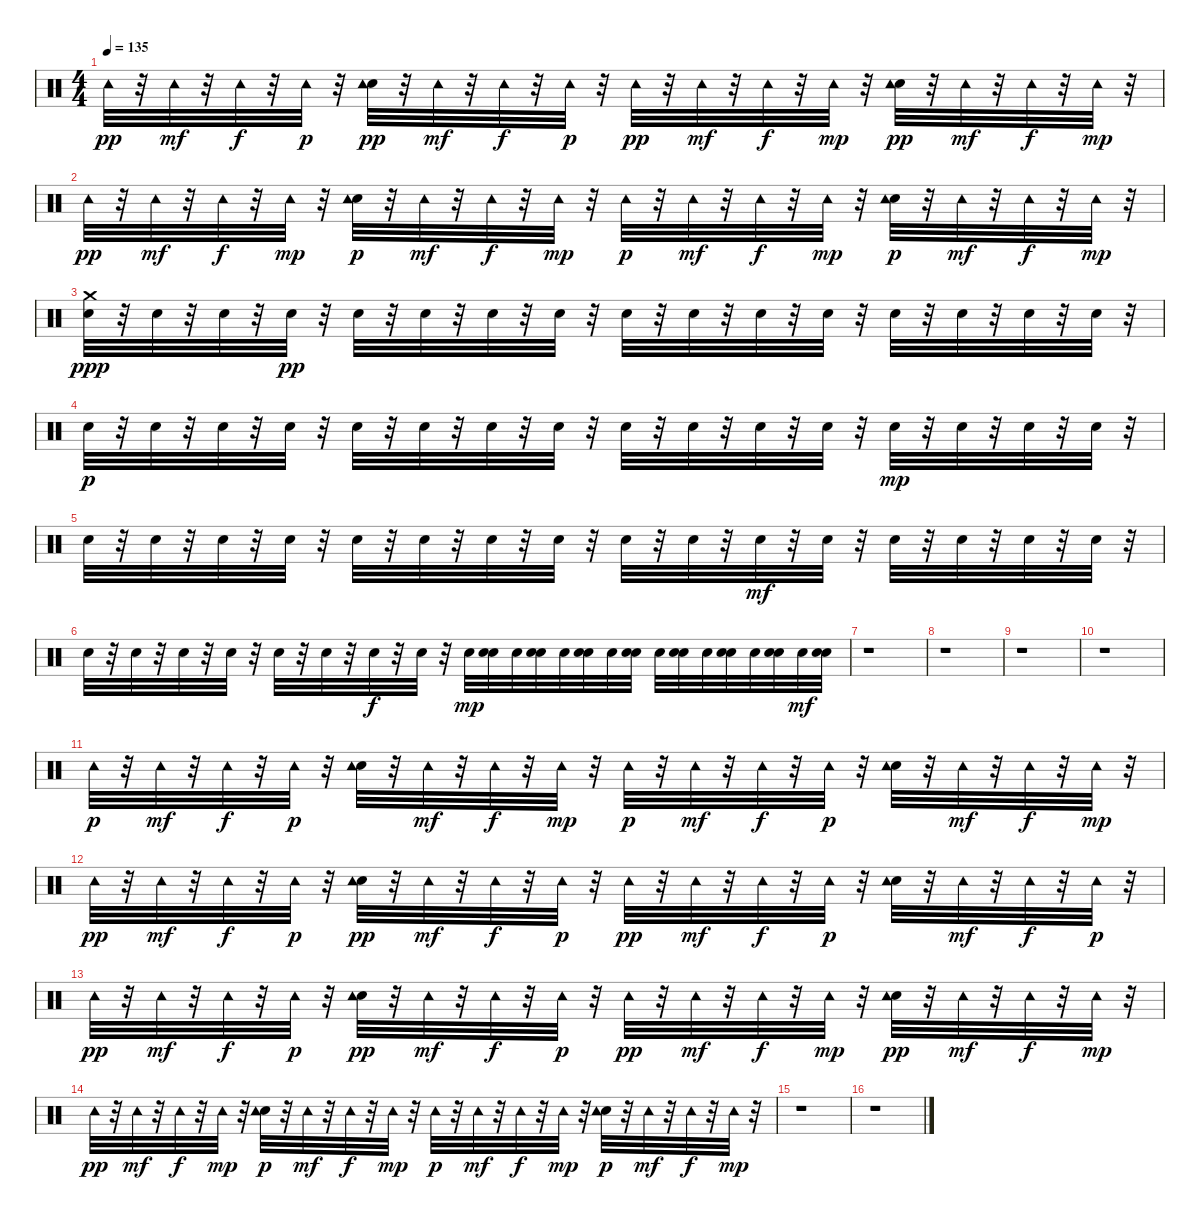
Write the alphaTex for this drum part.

\track "" {instrument percussion}
\staff {score}
\articulation defaults
\ts (4 4)
\tempo 135
\clef neutral
\ks c "Tambourine (hit)".32{dy pp}
r.32 "Tambourine (hit)".32{dy mf} r.32 "Tambourine (hit)".32{dy f} r.32 "Tambourine (hit)".32{dy p} r.32 ("Snare (hit) 2" "Tambourine (hit)").32{dy pp} r.32 "Tambourine (hit)".32{dy mf} r.32 "Tambourine (hit)".32{dy f} r.32 "Tambourine (hit)".32{dy p} r.32 "Tambourine (hit)".32{dy pp} r.32 "Tambourine (hit)".32{dy mf} r.32 "Tambourine (hit)".32{dy f} r.32 "Tambourine (hit)".32{dy mp} r.32 ("Snare (hit) 2" "Tambourine (hit)").32{dy pp} r.32 "Tambourine (hit)".32{dy mf} r.32 "Tambourine (hit)".32{dy f} r.32 "Tambourine (hit)".32{dy mp} r.32 |
"Tambourine (hit)".32{dy pp} r.32 "Tambourine (hit)".32{dy mf} r.32 "Tambourine (hit)".32{dy f} r.32 "Tambourine (hit)".32{dy mp} r.32 ("Snare (hit) 2" "Tambourine (hit)").32{dy p} r.32 "Tambourine (hit)".32{dy mf} r.32 "Tambourine (hit)".32{dy f} r.32 "Tambourine (hit)".32{dy mp} r.32 "Tambourine (hit)".32{dy p} r.32 "Tambourine (hit)".32{dy mf} r.32 "Tambourine (hit)".32{dy f} r.32 "Tambourine (hit)".32{dy mp} r.32 ("Snare (hit) 2" "Tambourine (hit)").32{dy p} r.32 "Tambourine (hit)".32{dy mf} r.32 "Tambourine (hit)".32{dy f} r.32 "Tambourine (hit)".32{dy mp} r.32 |
("Crash medium (hit)" "Snare (hit) 2").32{dy ppp} r.32 "Snare (hit) 2".32 r.32 "Snare (hit) 2".32 r.32 "Snare (hit) 2".32{dy pp} r.32 "Snare (hit) 2".32 r.32 "Snare (hit) 2".32 r.32 "Snare (hit) 2".32 r.32 "Snare (hit) 2".32 r.32 "Snare (hit) 2".32 r.32 "Snare (hit) 2".32 r.32 "Snare (hit) 2".32 r.32 "Snare (hit) 2".32 r.32 "Snare (hit) 2".32 r.32 "Snare (hit) 2".32 r.32 "Snare (hit) 2".32 r.32 "Snare (hit) 2".32 r.32 |
"Snare (hit) 2".32{dy p} r.32 "Snare (hit) 2".32 r.32 "Snare (hit) 2".32 r.32 "Snare (hit) 2".32 r.32 "Snare (hit) 2".32 r.32 "Snare (hit) 2".32 r.32 "Snare (hit) 2".32 r.32 "Snare (hit) 2".32 r.32 "Snare (hit) 2".32 r.32 "Snare (hit) 2".32 r.32 "Snare (hit) 2".32 r.32 "Snare (hit) 2".32 r.32 "Snare (hit) 2".32{dy mp} r.32 "Snare (hit) 2".32 r.32 "Snare (hit) 2".32 r.32 "Snare (hit) 2".32 r.32 |
"Snare (hit) 2".32 r.32 "Snare (hit) 2".32 r.32 "Snare (hit) 2".32 r.32 "Snare (hit) 2".32 r.32 "Snare (hit) 2".32 r.32 "Snare (hit) 2".32 r.32 "Snare (hit) 2".32 r.32 "Snare (hit) 2".32 r.32 "Snare (hit) 2".32 r.32 "Snare (hit) 2".32 r.32 "Snare (hit) 2".32{dy mf} r.32 "Snare (hit) 2".32 r.32 "Snare (hit) 2".32 r.32 "Snare (hit) 2".32 r.32 "Snare (hit) 2".32 r.32 "Snare (hit) 2".32 r.32 |
"Snare (hit) 2".32 r.32 "Snare (hit) 2".32 r.32 "Snare (hit) 2".32 r.32 "Snare (hit) 2".32 r.32 "Snare (hit) 2".32 r.32 "Snare (hit) 2".32 r.32 "Snare (hit) 2".32{dy f} r.32 "Snare (hit) 2".32 r.32 "Snare (hit) 2".32{dy mp} ("Snare (hit) 2" "Snare (hit) 2").32 "Snare (hit) 2".32 ("Snare (hit) 2" "Snare (hit) 2").32 "Snare (hit) 2".32 ("Snare (hit) 2" "Snare (hit) 2").32 "Snare (hit) 2".32 ("Snare (hit) 2" "Snare (hit) 2").32 "Snare (hit) 2".32 ("Snare (hit) 2" "Snare (hit) 2").32 "Snare (hit) 2".32 ("Snare (hit) 2" "Snare (hit) 2").32 "Snare (hit) 2".32 ("Snare (hit) 2" "Snare (hit) 2").32 "Snare (hit) 2".32{dy mf} ("Snare (hit) 2" "Snare (hit) 2").32 |
r.1 |
r.1 |
r.1 |
r.1 |
"Tambourine (hit)".32{dy p} r.32 "Tambourine (hit)".32{dy mf} r.32 "Tambourine (hit)".32{dy f} r.32 "Tambourine (hit)".32{dy p} r.32 ("Snare (hit) 2" "Tambourine (hit)").32 r.32 "Tambourine (hit)".32{dy mf} r.32 "Tambourine (hit)".32{dy f} r.32 "Tambourine (hit)".32{dy mp} r.32 "Tambourine (hit)".32{dy p} r.32 "Tambourine (hit)".32{dy mf} r.32 "Tambourine (hit)".32{dy f} r.32 "Tambourine (hit)".32{dy p} r.32 ("Snare (hit) 2" "Tambourine (hit)").32 r.32 "Tambourine (hit)".32{dy mf} r.32 "Tambourine (hit)".32{dy f} r.32 "Tambourine (hit)".32{dy mp} r.32 |
"Tambourine (hit)".32{dy pp} r.32 "Tambourine (hit)".32{dy mf} r.32 "Tambourine (hit)".32{dy f} r.32 "Tambourine (hit)".32{dy p} r.32 ("Snare (hit) 2" "Tambourine (hit)").32{dy pp} r.32 "Tambourine (hit)".32{dy mf} r.32 "Tambourine (hit)".32{dy f} r.32 "Tambourine (hit)".32{dy p} r.32 "Tambourine (hit)".32{dy pp} r.32 "Tambourine (hit)".32{dy mf} r.32 "Tambourine (hit)".32{dy f} r.32 "Tambourine (hit)".32{dy p} r.32 ("Snare (hit) 2" "Tambourine (hit)").32 r.32 "Tambourine (hit)".32{dy mf} r.32 "Tambourine (hit)".32{dy f} r.32 "Tambourine (hit)".32{dy p} r.32 |
"Tambourine (hit)".32{dy pp} r.32 "Tambourine (hit)".32{dy mf} r.32 "Tambourine (hit)".32{dy f} r.32 "Tambourine (hit)".32{dy p} r.32 ("Snare (hit) 2" "Tambourine (hit)").32{dy pp} r.32 "Tambourine (hit)".32{dy mf} r.32 "Tambourine (hit)".32{dy f} r.32 "Tambourine (hit)".32{dy p} r.32 "Tambourine (hit)".32{dy pp} r.32 "Tambourine (hit)".32{dy mf} r.32 "Tambourine (hit)".32{dy f} r.32 "Tambourine (hit)".32{dy mp} r.32 ("Snare (hit) 2" "Tambourine (hit)").32{dy pp} r.32 "Tambourine (hit)".32{dy mf} r.32 "Tambourine (hit)".32{dy f} r.32 "Tambourine (hit)".32{dy mp} r.32 |
"Tambourine (hit)".32{dy pp} r.32 "Tambourine (hit)".32{dy mf} r.32 "Tambourine (hit)".32{dy f} r.32 "Tambourine (hit)".32{dy mp} r.32 ("Snare (hit) 2" "Tambourine (hit)").32{dy p} r.32 "Tambourine (hit)".32{dy mf} r.32 "Tambourine (hit)".32{dy f} r.32 "Tambourine (hit)".32{dy mp} r.32 "Tambourine (hit)".32{dy p} r.32 "Tambourine (hit)".32{dy mf} r.32 "Tambourine (hit)".32{dy f} r.32 "Tambourine (hit)".32{dy mp} r.32 ("Snare (hit) 2" "Tambourine (hit)").32{dy p} r.32 "Tambourine (hit)".32{dy mf} r.32 "Tambourine (hit)".32{dy f} r.32 "Tambourine (hit)".32{dy mp} r.32 |
r.1 |
r.1
